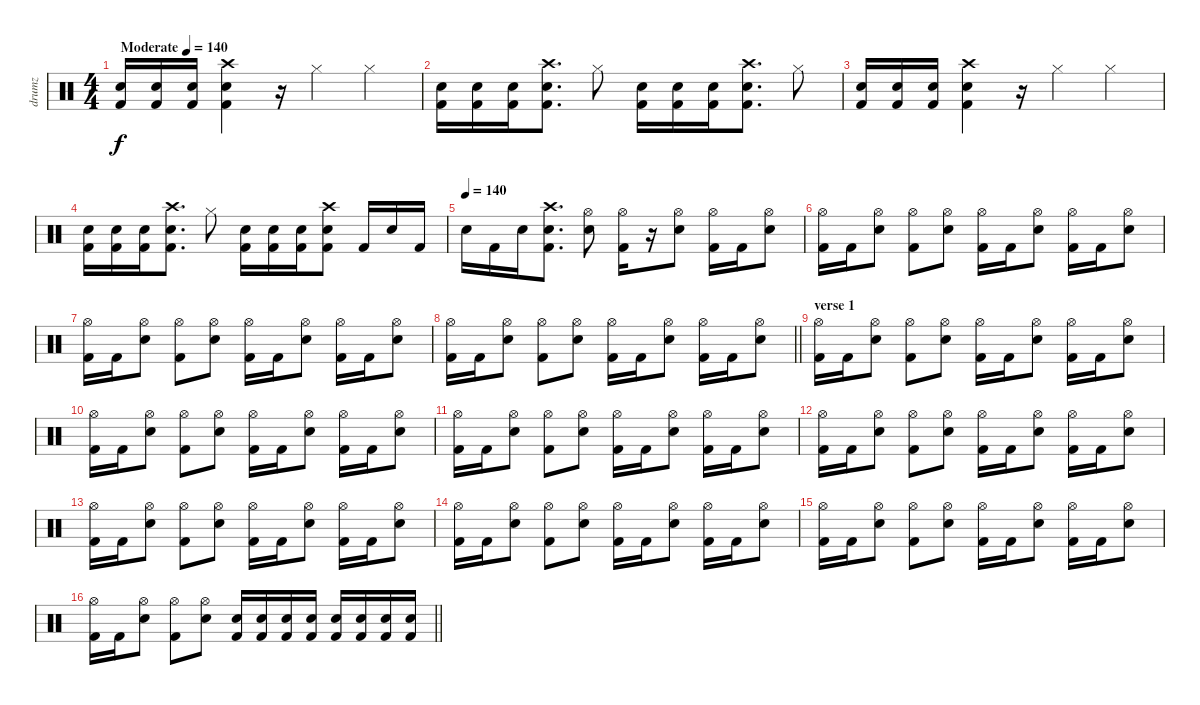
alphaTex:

\track ("drumz" "drumz") {instrument percussion}
\staff {score}
\articulation defaults
\ts (4 4)
\tempo (140 "Moderate")
\tempo 130
\tempo (140 "Moderate")
\clef neutral
\ks c
("Electric Snare (hit)" "Kick (hit) 2").16{dy f} ("Electric Snare (hit)" "Kick (hit) 2").16 ("Electric Snare (hit)" "Kick (hit) 2").16 ("Crash high (hit)" "Electric Snare (hit)" "Kick (hit) 2").4 r.16 "Hi-Hat (closed)".4 "Hi-Hat (closed)".4 |
("Electric Snare (hit)" "Kick (hit) 2").16 ("Electric Snare (hit)" "Kick (hit) 2").16 ("Electric Snare (hit)" "Kick (hit) 2").16 ("Crash high (hit)" "Electric Snare (hit)" "Kick (hit) 2").8{d} "Hi-Hat (closed)".8 ("Electric Snare (hit)" "Kick (hit) 2").16 ("Electric Snare (hit)" "Kick (hit) 2").16 ("Electric Snare (hit)" "Kick (hit) 2").16 ("Crash high (hit)" "Electric Snare (hit)" "Kick (hit) 2").8{d} "Hi-Hat (closed)".8 |
("Electric Snare (hit)" "Kick (hit) 2").16 ("Electric Snare (hit)" "Kick (hit) 2").16 ("Electric Snare (hit)" "Kick (hit) 2").16 ("Crash high (hit)" "Electric Snare (hit)" "Kick (hit) 2").4 r.16 "Hi-Hat (closed)".4 "Hi-Hat (closed)".4 |
("Electric Snare (hit)" "Kick (hit) 2").16 ("Electric Snare (hit)" "Kick (hit) 2").16 ("Electric Snare (hit)" "Kick (hit) 2").16 ("Crash high (hit)" "Electric Snare (hit)" "Kick (hit) 2").8{d} "Hi-Hat (closed)".8 ("Electric Snare (hit)" "Kick (hit) 2").16 ("Electric Snare (hit)" "Kick (hit) 2").16 ("Electric Snare (hit)" "Kick (hit) 2").16 ("Crash high (hit)" "Electric Snare (hit)" "Kick (hit) 2").8 "Kick (hit) 2".16 "Electric Snare (hit)".16 "Kick (hit) 2".16 |
\tempo (140)
"Electric Snare (hit)".16 "Kick (hit) 2".16 "Electric Snare (hit)".16 ("Crash high (hit)" "Electric Snare (hit)" "Kick (hit) 2").8{d} ("Hi-Hat (open)" "Electric Snare (hit)").8 ("Hi-Hat (open)" "Kick (hit) 2").16 r.16 ("Hi-Hat (open)" "Electric Snare (hit)").8 ("Hi-Hat (open)" "Kick (hit) 2").16 "Kick (hit) 2".16 ("Hi-Hat (open)" "Electric Snare (hit)").8 |
("Hi-Hat (open)" "Kick (hit) 2").16 "Kick (hit) 2".16 ("Hi-Hat (open)" "Electric Snare (hit)").8 ("Hi-Hat (open)" "Kick (hit) 2").8 ("Hi-Hat (open)" "Electric Snare (hit)").8 ("Hi-Hat (open)" "Kick (hit) 2").16 "Kick (hit) 2".16 ("Hi-Hat (open)" "Electric Snare (hit)").8 ("Hi-Hat (open)" "Kick (hit) 2").16 "Kick (hit) 2".16 ("Hi-Hat (open)" "Electric Snare (hit)").8 |
("Hi-Hat (open)" "Kick (hit) 2").16 "Kick (hit) 2".16 ("Hi-Hat (open)" "Electric Snare (hit)").8 ("Hi-Hat (open)" "Kick (hit) 2").8 ("Hi-Hat (open)" "Electric Snare (hit)").8 ("Hi-Hat (open)" "Kick (hit) 2").16 "Kick (hit) 2".16 ("Hi-Hat (open)" "Electric Snare (hit)").8 ("Hi-Hat (open)" "Kick (hit) 2").16 "Kick (hit) 2".16 ("Hi-Hat (open)" "Electric Snare (hit)").8 |
\barLineRight lightlight
("Hi-Hat (open)" "Kick (hit) 2").16 "Kick (hit) 2".16 ("Hi-Hat (open)" "Electric Snare (hit)").8 ("Hi-Hat (open)" "Kick (hit) 2").8 ("Hi-Hat (open)" "Electric Snare (hit)").8 ("Hi-Hat (open)" "Kick (hit) 2").16 "Kick (hit) 2".16 ("Hi-Hat (open)" "Electric Snare (hit)").8 ("Hi-Hat (open)" "Kick (hit) 2").16 "Kick (hit) 2".16 ("Hi-Hat (open)" "Electric Snare (hit)").8 |
\section ("" "verse 1")
("Hi-Hat (open)" "Kick (hit) 2").16 "Kick (hit) 2".16 ("Hi-Hat (open)" "Electric Snare (hit)").8 ("Hi-Hat (open)" "Kick (hit) 2").8 ("Hi-Hat (open)" "Electric Snare (hit)").8 ("Hi-Hat (open)" "Kick (hit) 2").16 "Kick (hit) 2".16 ("Hi-Hat (open)" "Electric Snare (hit)").8 ("Hi-Hat (open)" "Kick (hit) 2").16 "Kick (hit) 2".16 ("Hi-Hat (open)" "Electric Snare (hit)").8 |
("Hi-Hat (open)" "Kick (hit) 2").16 "Kick (hit) 2".16 ("Hi-Hat (open)" "Electric Snare (hit)").8 ("Hi-Hat (open)" "Kick (hit) 2").8 ("Hi-Hat (open)" "Electric Snare (hit)").8 ("Hi-Hat (open)" "Kick (hit) 2").16 "Kick (hit) 2".16 ("Hi-Hat (open)" "Electric Snare (hit)").8 ("Hi-Hat (open)" "Kick (hit) 2").16 "Kick (hit) 2".16 ("Hi-Hat (open)" "Electric Snare (hit)").8 |
("Hi-Hat (open)" "Kick (hit) 2").16 "Kick (hit) 2".16 ("Hi-Hat (open)" "Electric Snare (hit)").8 ("Hi-Hat (open)" "Kick (hit) 2").8 ("Hi-Hat (open)" "Electric Snare (hit)").8 ("Hi-Hat (open)" "Kick (hit) 2").16 "Kick (hit) 2".16 ("Hi-Hat (open)" "Electric Snare (hit)").8 ("Hi-Hat (open)" "Kick (hit) 2").16 "Kick (hit) 2".16 ("Hi-Hat (open)" "Electric Snare (hit)").8 |
("Hi-Hat (open)" "Kick (hit) 2").16 "Kick (hit) 2".16 ("Hi-Hat (open)" "Electric Snare (hit)").8 ("Hi-Hat (open)" "Kick (hit) 2").8 ("Hi-Hat (open)" "Electric Snare (hit)").8 ("Hi-Hat (open)" "Kick (hit) 2").16 "Kick (hit) 2".16 ("Hi-Hat (open)" "Electric Snare (hit)").8 ("Hi-Hat (open)" "Kick (hit) 2").16 "Kick (hit) 2".16 ("Hi-Hat (open)" "Electric Snare (hit)").8 |
("Hi-Hat (open)" "Kick (hit) 2").16 "Kick (hit) 2".16 ("Hi-Hat (open)" "Electric Snare (hit)").8 ("Hi-Hat (open)" "Kick (hit) 2").8 ("Hi-Hat (open)" "Electric Snare (hit)").8 ("Hi-Hat (open)" "Kick (hit) 2").16 "Kick (hit) 2".16 ("Hi-Hat (open)" "Electric Snare (hit)").8 ("Hi-Hat (open)" "Kick (hit) 2").16 "Kick (hit) 2".16 ("Hi-Hat (open)" "Electric Snare (hit)").8 |
("Hi-Hat (open)" "Kick (hit) 2").16 "Kick (hit) 2".16 ("Hi-Hat (open)" "Electric Snare (hit)").8 ("Hi-Hat (open)" "Kick (hit) 2").8 ("Hi-Hat (open)" "Electric Snare (hit)").8 ("Hi-Hat (open)" "Kick (hit) 2").16 "Kick (hit) 2".16 ("Hi-Hat (open)" "Electric Snare (hit)").8 ("Hi-Hat (open)" "Kick (hit) 2").16 "Kick (hit) 2".16 ("Hi-Hat (open)" "Electric Snare (hit)").8 |
("Hi-Hat (open)" "Kick (hit) 2").16 "Kick (hit) 2".16 ("Hi-Hat (open)" "Electric Snare (hit)").8 ("Hi-Hat (open)" "Kick (hit) 2").8 ("Hi-Hat (open)" "Electric Snare (hit)").8 ("Hi-Hat (open)" "Kick (hit) 2").16 "Kick (hit) 2".16 ("Hi-Hat (open)" "Electric Snare (hit)").8 ("Hi-Hat (open)" "Kick (hit) 2").16 "Kick (hit) 2".16 ("Hi-Hat (open)" "Electric Snare (hit)").8 |
\barLineRight lightlight
("Hi-Hat (open)" "Kick (hit) 2").16 "Kick (hit) 2".16 ("Hi-Hat (open)" "Electric Snare (hit)").8 ("Hi-Hat (open)" "Kick (hit) 2").8 ("Hi-Hat (open)" "Electric Snare (hit)").8 ("Electric Snare (hit)" "Kick (hit) 2").16 ("Electric Snare (hit)" "Kick (hit) 2").16 ("Electric Snare (hit)" "Kick (hit) 2").16 ("Electric Snare (hit)" "Kick (hit) 2").16 ("Electric Snare (hit)" "Kick (hit) 2").16 ("Electric Snare (hit)" "Kick (hit) 2").16 ("Electric Snare (hit)" "Kick (hit) 2").16 ("Electric Snare (hit)" "Kick (hit) 2").16
